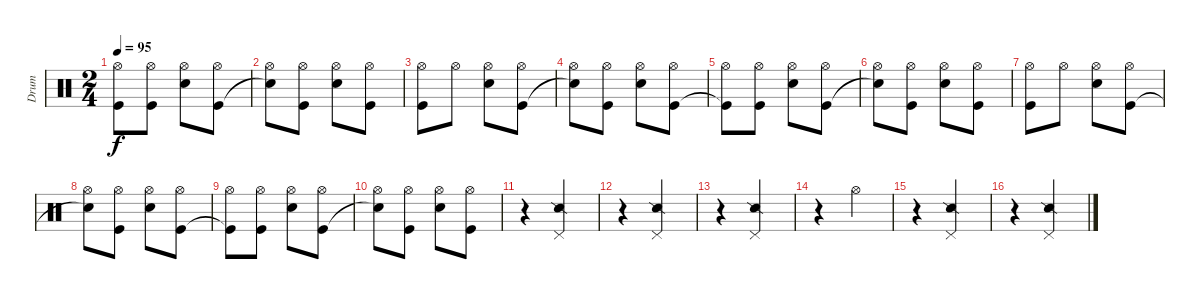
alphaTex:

\track ("Drum" "Drum") {instrument percussion}
\staff {score}
\articulation defaults
\ts (2 4)
\tempo 95
\clef neutral
\ks c
("Kick (hit)"{t} "Hi-Hat (open)").8{dy f} ("Kick (hit)" "Hi-Hat (open)").8 ("Electric Snare (hit)" "Hi-Hat (open)").8 ("Kick (hit)" "Hi-Hat (open)").8 |
("Snare (hit)"{t} "Hi-Hat (open)").8 ("Kick (hit)" "Hi-Hat (open)").8 ("Electric Snare (hit)" "Hi-Hat (open)").8 ("Kick (hit)" "Hi-Hat (open)").8 |
("Kick (hit)" "Hi-Hat (open)").8 "Hi-Hat (open)".8 ("Electric Snare (hit)" "Hi-Hat (open)").8 ("Kick (hit)" "Hi-Hat (open)").8 |
("Snare (hit)"{t} "Hi-Hat (open)").8 ("Kick (hit)" "Hi-Hat (open)").8 ("Electric Snare (hit)" "Hi-Hat (open)").8 ("Kick (hit)" "Hi-Hat (open)").8 |
("Kick (hit)"{t} "Hi-Hat (open)").8 ("Kick (hit)" "Hi-Hat (open)").8 ("Electric Snare (hit)" "Hi-Hat (open)").8 ("Kick (hit)" "Hi-Hat (open)").8 |
("Snare (hit)"{t} "Hi-Hat (open)").8 ("Kick (hit)" "Hi-Hat (open)").8 ("Electric Snare (hit)" "Hi-Hat (open)").8 ("Kick (hit)" "Hi-Hat (open)").8 |
("Kick (hit)" "Hi-Hat (open)").8 "Hi-Hat (open)".8 ("Electric Snare (hit)" "Hi-Hat (open)").8 ("Kick (hit)" "Hi-Hat (open)").8 |
("Snare (hit)"{t} "Hi-Hat (open)").8 ("Kick (hit)" "Hi-Hat (open)").8 ("Electric Snare (hit)" "Hi-Hat (open)").8 ("Kick (hit)" "Hi-Hat (open)").8 |
("Kick (hit)"{t} "Hi-Hat (open)").8 ("Kick (hit)" "Hi-Hat (open)").8 ("Electric Snare (hit)" "Hi-Hat (open)").8 ("Kick (hit)" "Hi-Hat (open)").8 |
("Snare (hit)"{t} "Hi-Hat (open)").8 ("Kick (hit)" "Hi-Hat (open)").8 ("Electric Snare (hit)" "Hi-Hat (open)").8 ("Kick (hit)" "Hi-Hat (open)").8 |
r.4 ("Snare (side stick) 2" "Pedal Hi-Hat (hit)").4 |
r.4 ("Snare (side stick) 2" "Pedal Hi-Hat (hit)").4 |
r.4 ("Snare (side stick) 2" "Pedal Hi-Hat (hit)").4 |
r.4 "Hi-Hat (open)".4 |
r.4 ("Snare (side stick) 2" "Pedal Hi-Hat (hit)").4 |
r.4 ("Snare (side stick) 2" "Pedal Hi-Hat (hit)").4
